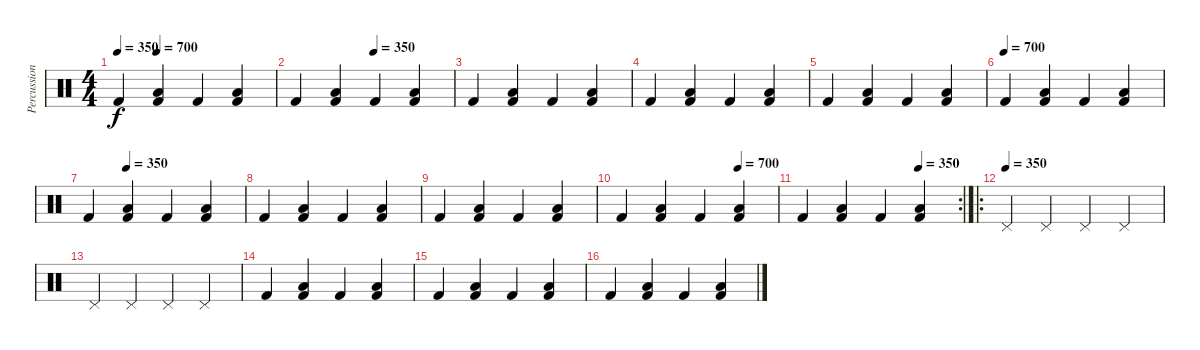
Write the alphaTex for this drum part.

\track ("Percussion" "Percussion") {instrument percussion}
\staff {score}
\articulation defaults
\ts (4 4)
\tempo 350
\tempo (700 0.25)
\clef neutral
\ks c "Kick (hit) 2".4{dy f}
("Low Tom (hit)" "Kick (hit) 2").4 "Kick (hit) 2".4 ("Low Tom (hit)" "Kick (hit) 2").4 |
\tempo (350 0.5)
"Kick (hit) 2".4 ("Low Tom (hit)" "Kick (hit) 2").4 "Kick (hit) 2".4 ("Low Tom (hit)" "Kick (hit) 2").4 |
"Kick (hit) 2".4 ("Low Tom (hit)" "Kick (hit) 2").4 "Kick (hit) 2".4 ("Low Tom (hit)" "Kick (hit) 2").4 |
"Kick (hit) 2".4 ("Low Tom (hit)" "Kick (hit) 2").4 "Kick (hit) 2".4 ("Low Tom (hit)" "Kick (hit) 2").4 |
"Kick (hit) 2".4 ("Low Tom (hit)" "Kick (hit) 2").4 "Kick (hit) 2".4 ("Low Tom (hit)" "Kick (hit) 2").4 |
\tempo (700)
"Kick (hit) 2".4 ("Low Tom (hit)" "Kick (hit) 2").4 "Kick (hit) 2".4 ("Low Tom (hit)" "Kick (hit) 2").4 |
\tempo (350 0.25)
"Kick (hit) 2".4 ("Low Tom (hit)" "Kick (hit) 2").4 "Kick (hit) 2".4 ("Low Tom (hit)" "Kick (hit) 2").4 |
"Kick (hit) 2".4 ("Low Tom (hit)" "Kick (hit) 2").4 "Kick (hit) 2".4 ("Low Tom (hit)" "Kick (hit) 2").4 |
"Kick (hit) 2".4 ("Low Tom (hit)" "Kick (hit) 2").4 "Kick (hit) 2".4 ("Low Tom (hit)" "Kick (hit) 2").4 |
\tempo (700 0.75)
"Kick (hit) 2".4 ("Low Tom (hit)" "Kick (hit) 2").4 "Kick (hit) 2".4 ("Low Tom (hit)" "Kick (hit) 2").4 |
\rc 2
\tempo (350 0.75)
"Kick (hit) 2".4 ("Low Tom (hit)" "Kick (hit) 2").4 "Kick (hit) 2".4 ("Low Tom (hit)" "Kick (hit) 2").4 |
\ro
\tempo (350)
"Pedal Hi-Hat (hit)".4 "Pedal Hi-Hat (hit)".4 "Pedal Hi-Hat (hit)".4 "Pedal Hi-Hat (hit)".4 |
"Pedal Hi-Hat (hit)".4 "Pedal Hi-Hat (hit)".4 "Pedal Hi-Hat (hit)".4 "Pedal Hi-Hat (hit)".4 |
"Kick (hit) 2".4 ("Low Tom (hit)" "Kick (hit) 2").4 "Kick (hit) 2".4 ("Low Tom (hit)" "Kick (hit) 2").4 |
"Kick (hit) 2".4 ("Low Tom (hit)" "Kick (hit) 2").4 "Kick (hit) 2".4 ("Low Tom (hit)" "Kick (hit) 2").4 |
"Kick (hit) 2".4 ("Low Tom (hit)" "Kick (hit) 2").4 "Kick (hit) 2".4 ("Low Tom (hit)" "Kick (hit) 2").4
